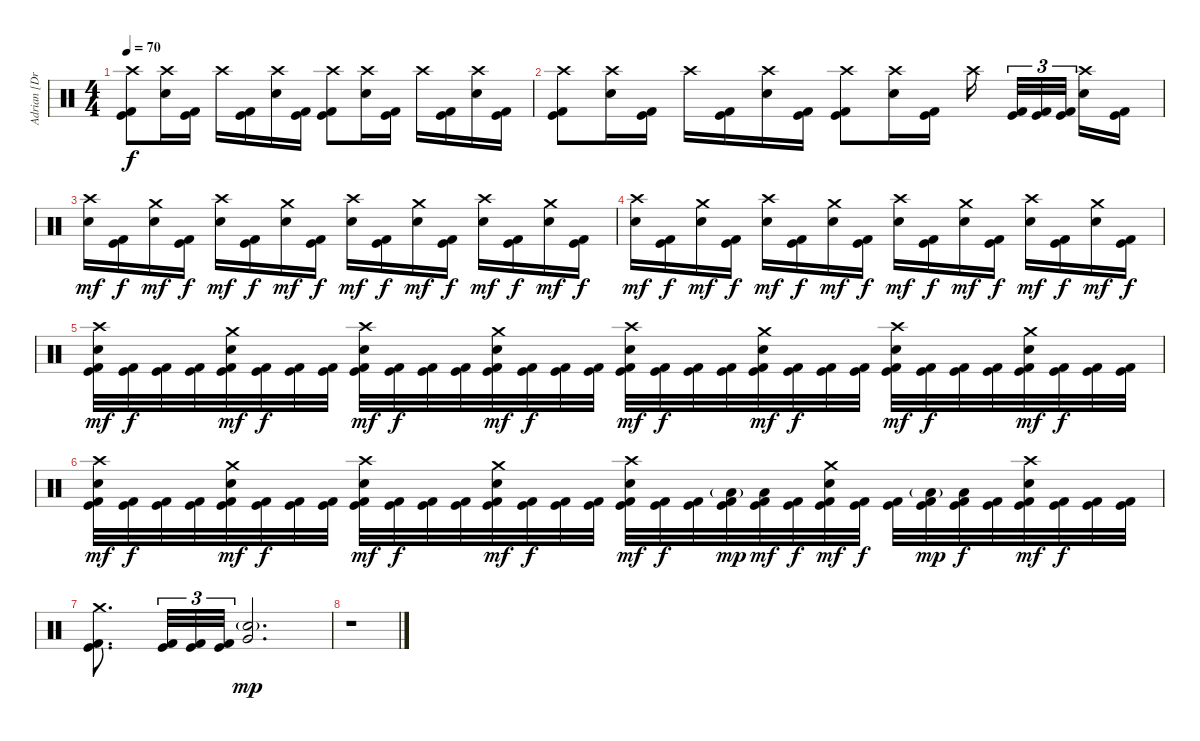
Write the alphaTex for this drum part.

\track ("Adrian [Drums]" "Adrian [Dr") {instrument percussion}
\staff {score}
\articulation defaults
\ts (4 4)
\tempo 70
\clef neutral
\ks c
("Crash high (hit)" "Kick (hit)" "Kick (hit) 2").8{dy f} ("Crash high (hit)" "Electric Snare (hit)").16 ("Kick (hit)" "Kick (hit) 2").16 "Crash high (hit)".16 ("Kick (hit)" "Kick (hit) 2").16 ("Crash high (hit)" "Electric Snare (hit)").16 ("Kick (hit)" "Kick (hit) 2").16 ("Crash high (hit)" "Kick (hit)" "Kick (hit) 2").8 ("Crash high (hit)" "Electric Snare (hit)").16 ("Kick (hit)" "Kick (hit) 2").16 "Crash high (hit)".16 ("Kick (hit)" "Kick (hit) 2").16 ("Crash high (hit)" "Electric Snare (hit)").16 ("Kick (hit)" "Kick (hit) 2").16 |
("Crash high (hit)" "Kick (hit)" "Kick (hit) 2").8 ("Crash high (hit)" "Electric Snare (hit)").16 ("Kick (hit)" "Kick (hit) 2").16 "Crash high (hit)".16 ("Kick (hit)" "Kick (hit) 2").16 ("Crash high (hit)" "Electric Snare (hit)").16 ("Kick (hit)" "Kick (hit) 2").16 ("Crash high (hit)" "Kick (hit)" "Kick (hit) 2").8 ("Crash high (hit)" "Electric Snare (hit)").16 ("Kick (hit)" "Kick (hit) 2").16 "Crash high (hit)".16{beam splitsecondary} ("Kick (hit)" "Kick (hit) 2").32{tu (3 2)} ("Kick (hit)" "Kick (hit) 2").32{tu (3 2)} ("Kick (hit)" "Kick (hit) 2").32{tu (3 2) beam splitsecondary} ("Crash high (hit)" "Electric Snare (hit)").16 ("Kick (hit)" "Kick (hit) 2").16 |
("Crash high (hit)" "Electric Snare (hit)").16{dy mf} ("Kick (hit)" "Kick (hit) 2").16{dy f} ("Crash medium (hit)" "Electric Snare (hit)").16{dy mf} ("Kick (hit)" "Kick (hit) 2").16{dy f} ("Crash high (hit)" "Electric Snare (hit)").16{dy mf} ("Kick (hit)" "Kick (hit) 2").16{dy f} ("Crash medium (hit)" "Electric Snare (hit)").16{dy mf} ("Kick (hit)" "Kick (hit) 2").16{dy f} ("Crash high (hit)" "Electric Snare (hit)").16{dy mf} ("Kick (hit)" "Kick (hit) 2").16{dy f} ("Crash medium (hit)" "Electric Snare (hit)").16{dy mf} ("Kick (hit)" "Kick (hit) 2").16{dy f} ("Crash high (hit)" "Electric Snare (hit)").16{dy mf} ("Kick (hit)" "Kick (hit) 2").16{dy f} ("Crash medium (hit)" "Electric Snare (hit)").16{dy mf} ("Kick (hit)" "Kick (hit) 2").16{dy f} |
("Crash high (hit)" "Electric Snare (hit)").16{dy mf} ("Kick (hit)" "Kick (hit) 2").16{dy f} ("Crash medium (hit)" "Electric Snare (hit)").16{dy mf} ("Kick (hit)" "Kick (hit) 2").16{dy f} ("Crash high (hit)" "Electric Snare (hit)").16{dy mf} ("Kick (hit)" "Kick (hit) 2").16{dy f} ("Crash medium (hit)" "Electric Snare (hit)").16{dy mf} ("Kick (hit)" "Kick (hit) 2").16{dy f} ("Crash high (hit)" "Electric Snare (hit)").16{dy mf} ("Kick (hit)" "Kick (hit) 2").16{dy f} ("Crash medium (hit)" "Electric Snare (hit)").16{dy mf} ("Kick (hit)" "Kick (hit) 2").16{dy f} ("Crash high (hit)" "Electric Snare (hit)").16{dy mf} ("Kick (hit)" "Kick (hit) 2").16{dy f} ("Crash medium (hit)" "Electric Snare (hit)").16{dy mf} ("Kick (hit)" "Kick (hit) 2").16{dy f} |
("Crash high (hit)" "Electric Snare (hit)" "Kick (hit)" "Kick (hit) 2").32{dy mf} ("Kick (hit)" "Kick (hit) 2").32{dy f} ("Kick (hit)" "Kick (hit) 2").32 ("Kick (hit)" "Kick (hit) 2").32 ("Crash medium (hit)" "Electric Snare (hit)" "Kick (hit)" "Kick (hit) 2").32{dy mf} ("Kick (hit)" "Kick (hit) 2").32{dy f} ("Kick (hit)" "Kick (hit) 2").32 ("Kick (hit)" "Kick (hit) 2").32 ("Crash high (hit)" "Electric Snare (hit)" "Kick (hit)" "Kick (hit) 2").32{dy mf} ("Kick (hit)" "Kick (hit) 2").32{dy f} ("Kick (hit)" "Kick (hit) 2").32 ("Kick (hit)" "Kick (hit) 2").32 ("Crash medium (hit)" "Electric Snare (hit)" "Kick (hit)" "Kick (hit) 2").32{dy mf} ("Kick (hit)" "Kick (hit) 2").32{dy f} ("Kick (hit)" "Kick (hit) 2").32 ("Kick (hit)" "Kick (hit) 2").32 ("Crash high (hit)" "Electric Snare (hit)" "Kick (hit)" "Kick (hit) 2").32{dy mf} ("Kick (hit)" "Kick (hit) 2").32{dy f} ("Kick (hit)" "Kick (hit) 2").32 ("Kick (hit)" "Kick (hit) 2").32 ("Crash medium (hit)" "Electric Snare (hit)" "Kick (hit)" "Kick (hit) 2").32{dy mf} ("Kick (hit)" "Kick (hit) 2").32{dy f} ("Kick (hit)" "Kick (hit) 2").32 ("Kick (hit)" "Kick (hit) 2").32 ("Crash high (hit)" "Electric Snare (hit)" "Kick (hit)" "Kick (hit) 2").32{dy mf} ("Kick (hit)" "Kick (hit) 2").32{dy f} ("Kick (hit)" "Kick (hit) 2").32 ("Kick (hit)" "Kick (hit) 2").32 ("Crash medium (hit)" "Electric Snare (hit)" "Kick (hit)" "Kick (hit) 2").32{dy mf} ("Kick (hit)" "Kick (hit) 2").32{dy f} ("Kick (hit)" "Kick (hit) 2").32 ("Kick (hit)" "Kick (hit) 2").32 |
("Crash high (hit)" "Electric Snare (hit)" "Kick (hit)" "Kick (hit) 2").32{dy mf} ("Kick (hit)" "Kick (hit) 2").32{dy f} ("Kick (hit)" "Kick (hit) 2").32 ("Kick (hit)" "Kick (hit) 2").32 ("Crash medium (hit)" "Electric Snare (hit)" "Kick (hit)" "Kick (hit) 2").32{dy mf} ("Kick (hit)" "Kick (hit) 2").32{dy f} ("Kick (hit)" "Kick (hit) 2").32 ("Kick (hit)" "Kick (hit) 2").32 ("Crash high (hit)" "Electric Snare (hit)" "Kick (hit)" "Kick (hit) 2").32{dy mf} ("Kick (hit)" "Kick (hit) 2").32{dy f} ("Kick (hit)" "Kick (hit) 2").32 ("Kick (hit)" "Kick (hit) 2").32 ("Crash medium (hit)" "Electric Snare (hit)" "Kick (hit)" "Kick (hit) 2").32{dy mf} ("Kick (hit)" "Kick (hit) 2").32{dy f} ("Kick (hit)" "Kick (hit) 2").32 ("Kick (hit)" "Kick (hit) 2").32 ("Crash high (hit)" "Electric Snare (hit)" "Kick (hit)" "Kick (hit) 2").32{dy mf} ("Kick (hit)" "Kick (hit) 2").32{dy f} ("Kick (hit)" "Kick (hit) 2").32 ("Low Tom (hit)"{g} "Kick (hit)" "Kick (hit) 2").32{dy mp} ("Low Tom (hit)" "Kick (hit)" "Kick (hit) 2").32{dy mf} ("Kick (hit)" "Kick (hit) 2").32{dy f} ("Crash medium (hit)" "Electric Snare (hit)" "Kick (hit)" "Kick (hit) 2").32{dy mf} ("Kick (hit)" "Kick (hit) 2").32{dy f} ("Kick (hit)" "Kick (hit) 2").32 ("Low Tom (hit)"{g} "Kick (hit)" "Kick (hit) 2").32{dy mp} ("Low Tom (hit)" "Kick (hit)" "Kick (hit) 2").32{dy f} ("Kick (hit)" "Kick (hit) 2").32 ("Crash high (hit)" "Electric Snare (hit)" "Kick (hit)" "Kick (hit) 2").32{dy mf} ("Kick (hit)" "Kick (hit) 2").32{dy f} ("Kick (hit)" "Kick (hit) 2").32 ("Kick (hit)" "Kick (hit) 2").32 |
("Crash medium (hit)" "Kick (hit)" "Kick (hit) 2").8{d} ("Kick (hit)" "Kick (hit) 2").32{tu (3 2)} ("Kick (hit)" "Kick (hit) 2").32{tu (3 2)} ("Kick (hit)" "Kick (hit) 2").32{tu (3 2)} ("Very Low Tom (hit)" "Electric Snare (hit)"{g}).2{d dy mp} |
r.1
